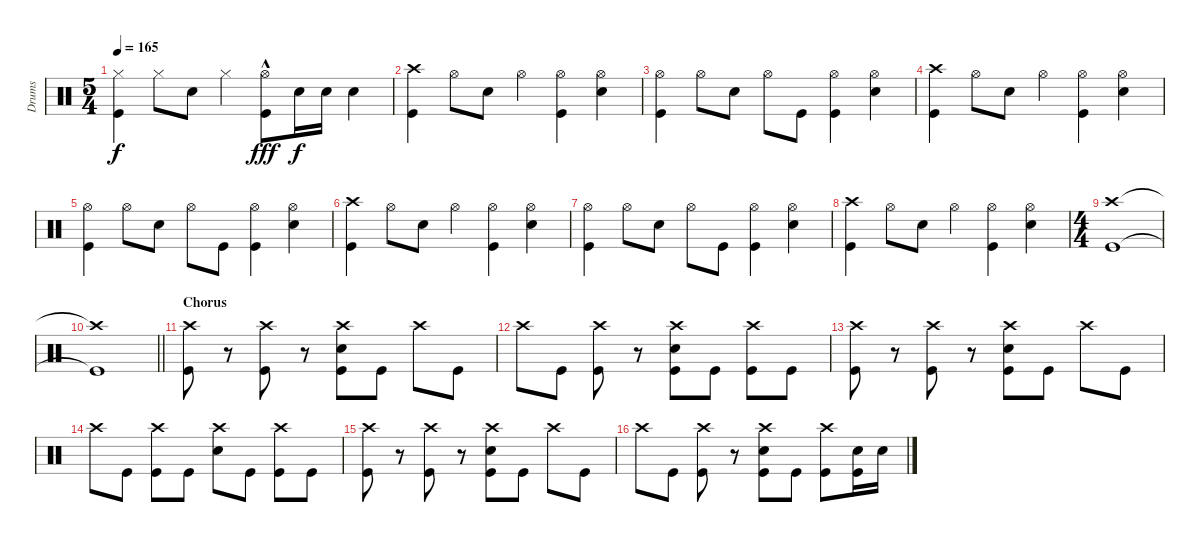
\track ("Drums" "Drums") {instrument percussion}
\staff {score}
\articulation defaults
\ts (5 4)
\tempo 165
\clef neutral
\ks c
("Hi-Hat (closed)" "Kick (hit)").4{dy f} "Hi-Hat (closed)".8 "Snare (hit) 2".8 "Hi-Hat (closed)".4 ("Hi-Hat (open)"{hac} "Kick (hit)").8{dy fff} "Snare (hit) 2".16{dy f} "Snare (hit) 2".16 "Snare (hit) 2".4 |
("Crash high (hit)" "Kick (hit)").4 "Hi-Hat (open)".8 "Snare (hit) 2".8 "Hi-Hat (open)".4 ("Hi-Hat (open)" "Kick (hit)").4 ("Hi-Hat (open)" "Snare (hit) 2").4 |
("Hi-Hat (open)" "Kick (hit)").4 "Hi-Hat (open)".8 "Snare (hit) 2".8 "Hi-Hat (open)".8 "Kick (hit)".8 ("Hi-Hat (open)" "Kick (hit)").4 ("Hi-Hat (open)" "Snare (hit) 2").4 |
("Crash high (hit)" "Kick (hit)").4 "Hi-Hat (open)".8 "Snare (hit) 2".8 "Hi-Hat (open)".4 ("Hi-Hat (open)" "Kick (hit)").4 ("Hi-Hat (open)" "Snare (hit) 2").4 |
("Hi-Hat (open)" "Kick (hit)").4 "Hi-Hat (open)".8 "Snare (hit) 2".8 "Hi-Hat (open)".8 "Kick (hit)".8 ("Hi-Hat (open)" "Kick (hit)").4 ("Hi-Hat (open)" "Snare (hit) 2").4 |
("Crash high (hit)" "Kick (hit)").4 "Hi-Hat (open)".8 "Snare (hit) 2".8 "Hi-Hat (open)".4 ("Hi-Hat (open)" "Kick (hit)").4 ("Hi-Hat (open)" "Snare (hit) 2").4 |
("Hi-Hat (open)" "Kick (hit)").4 "Hi-Hat (open)".8 "Snare (hit) 2".8 "Hi-Hat (open)".8 "Kick (hit)".8 ("Hi-Hat (open)" "Kick (hit)").4 ("Hi-Hat (open)" "Snare (hit) 2").4 |
("Crash high (hit)" "Kick (hit)").4 "Hi-Hat (open)".8 "Snare (hit) 2".8 "Hi-Hat (open)".4 ("Hi-Hat (open)" "Kick (hit)").4 ("Hi-Hat (open)" "Snare (hit) 2").4 |
\ts (4 4)
("Crash high (hit)" "Kick (hit)").1 |
\barLineRight lightlight
("Crash high (hit)"{t} "Kick (hit)"{t}).1 |
\section ("" "Chorus")
("Crash high (hit)" "Kick (hit)").8 r.8 ("Crash high (hit)" "Kick (hit)").8 r.8 ("Crash high (hit)" "Snare (hit) 2" "Kick (hit)").8 "Kick (hit)".8 "Crash high (hit)".8 "Kick (hit)".8 |
"Crash high (hit)".8 "Kick (hit)".8 ("Crash high (hit)" "Kick (hit)").8 r.8 ("Crash high (hit)" "Snare (hit) 2" "Kick (hit)").8 "Kick (hit)".8 ("Crash high (hit)" "Kick (hit)").8 "Kick (hit)".8 |
("Crash high (hit)" "Kick (hit)").8 r.8 ("Crash high (hit)" "Kick (hit)").8 r.8 ("Crash high (hit)" "Snare (hit) 2" "Kick (hit)").8 "Kick (hit)".8 "Crash high (hit)".8 "Kick (hit)".8 |
"Crash high (hit)".8 "Kick (hit)".8 ("Crash high (hit)" "Kick (hit)").8 "Kick (hit)".8 ("Crash high (hit)" "Snare (hit) 2").8 "Kick (hit)".8 ("Crash high (hit)" "Kick (hit)").8 "Kick (hit)".8 |
("Crash high (hit)" "Kick (hit)").8 r.8 ("Crash high (hit)" "Kick (hit)").8 r.8 ("Crash high (hit)" "Snare (hit) 2" "Kick (hit)").8 "Kick (hit)".8 "Crash high (hit)".8 "Kick (hit)".8 |
"Crash high (hit)".8 "Kick (hit)".8 ("Crash high (hit)" "Kick (hit)").8 r.8 ("Crash high (hit)" "Snare (hit) 2" "Kick (hit)").8 "Kick (hit)".8 ("Crash high (hit)" "Kick (hit)").8 ("Snare (hit) 2" "Kick (hit)").16 "Snare (hit) 2".16
